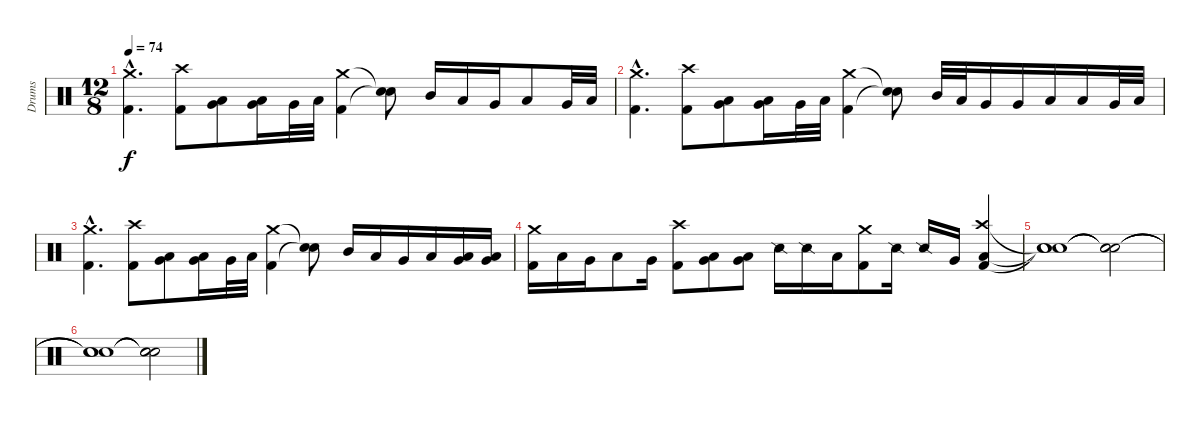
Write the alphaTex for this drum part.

\track ("Drums" "Drums") {instrument percussion}
\staff {score}
\articulation defaults
\ts (12 8)
\tempo 74
\clef neutral
\ks c
("Crash medium (hit)"{hac} "Kick (hit) 2"{hac}).4{d dy f} ("Crash high (hit)" "Kick (hit) 2").8 ("Low Tom (hit)" "Very Low Tom (hit)").8 ("Very Low Tom (hit)" "Low Floor Tom (hit)").16 "Very Low Tom (hit)".32 "Low Floor Tom (hit)".32 ("Crash medium (hit)" "Kick (hit) 2").4 ("Snare (hit)"{t} "Snare (hit)"{t}).8 "Mid Tom (hit)".16 "Low Tom (hit)".16 "Very Low Tom (hit)".16 "Low Floor Tom (hit)".8 "Very Low Tom (hit)".32 "Low Floor Tom (hit)".32 |
("Crash medium (hit)"{hac} "Kick (hit) 2"{hac}).4{d} ("Crash high (hit)" "Kick (hit) 2").8 ("Low Tom (hit)" "Very Low Tom (hit)").8 ("Very Low Tom (hit)" "Low Floor Tom (hit)").16 "Very Low Tom (hit)".32 "Low Floor Tom (hit)".32 ("Crash medium (hit)" "Kick (hit) 2").4 ("Snare (hit)"{t} "Snare (hit)"{t}).8 "Mid Tom (hit)".32 "Low Tom (hit)".32 "Very Low Tom (hit)".16 "Very Low Tom (hit)".16 "Low Floor Tom (hit)".16 "Low Floor Tom (hit)".16 "Very Low Tom (hit)".32 "Low Floor Tom (hit)".32 |
("Crash medium (hit)"{hac} "Kick (hit) 2"{hac}).4{d} ("Crash high (hit)" "Kick (hit) 2").8 ("Low Tom (hit)" "Very Low Tom (hit)").8 ("Very Low Tom (hit)" "Low Floor Tom (hit)").16 "Very Low Tom (hit)".32 "Low Floor Tom (hit)".32 ("Crash medium (hit)" "Kick (hit) 2").4 ("Snare (hit)"{t} "Snare (hit)"{t}).8 "Mid Tom (hit)".16 "Low Tom (hit)".16 "Very Low Tom (hit)".16 "Low Floor Tom (hit)".16 ("Low Tom (hit)" "Very Low Tom (hit)").16 ("Very Low Tom (hit)" "Low Floor Tom (hit)").16 |
("Crash medium (hit)" "Kick (hit) 2").16 "Low Tom (hit)".16 "Very Low Tom (hit)".16 "Low Floor Tom (hit)".8 "Very Low Tom (hit)".16 ("Crash high (hit)" "Kick (hit) 2").8 ("Very Low Tom (hit)" "Low Floor Tom (hit)").8 ("Very Low Tom (hit)" "Low Floor Tom (hit)").8 "Snare (side stick) 2".16 "Snare (side stick) 2".16 "Low Tom (hit)".16 ("Crash medium (hit)" "Kick (hit) 2").8 "Snare (side stick) 2".16 "Snare (side stick) 2".16 "Very Low Tom (hit)".16 ("Crash high (hit)" "Low Floor Tom (hit)" "Kick (hit) 2").4 |
("Snare (hit)"{t} "Snare (hit)"{t} "Snare (hit)"{t}).1 ("Snare (hit)"{t} "Snare (hit)"{t} "Snare (hit)"{t}).2 |
("Snare (hit)"{t} "Snare (hit)"{t} "Snare (hit)"{t}).1 ("Snare (hit)"{t} "Snare (hit)"{t} "Snare (hit)"{t}).2
